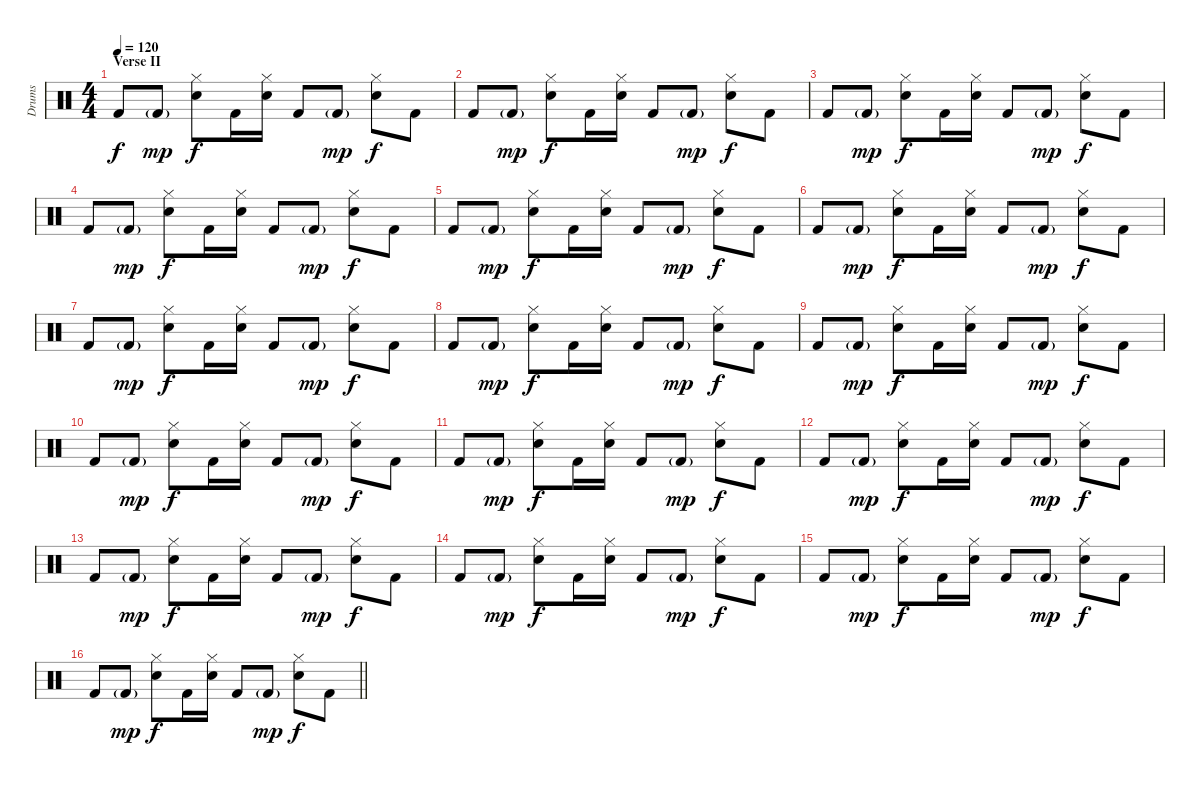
\track ("Drums" "Drums") {instrument percussion}
\staff {score}
\articulation defaults
\ts (4 4)
\section ("" "Verse II")
\tempo 120
\clef neutral
\ks c "Kick (hit) 2".8{dy f} "Kick (hit) 2"{g}.8{dy mp}
("Hi-Hat (closed)" "Snare (hit) 2").8{dy f} "Kick (hit) 2".16 ("Hi-Hat (closed)" "Snare (hit) 2").16 "Kick (hit) 2".8 "Kick (hit) 2"{g}.8{dy mp} ("Hi-Hat (closed)" "Snare (hit) 2").8{dy f} "Kick (hit) 2".8 |
"Kick (hit) 2".8 "Kick (hit) 2"{g}.8{dy mp} ("Hi-Hat (closed)" "Snare (hit) 2").8{dy f} "Kick (hit) 2".16 ("Hi-Hat (closed)" "Snare (hit) 2").16 "Kick (hit) 2".8 "Kick (hit) 2"{g}.8{dy mp} ("Hi-Hat (closed)" "Snare (hit) 2").8{dy f} "Kick (hit) 2".8 |
"Kick (hit) 2".8 "Kick (hit) 2"{g}.8{dy mp} ("Hi-Hat (closed)" "Snare (hit) 2").8{dy f} "Kick (hit) 2".16 ("Hi-Hat (closed)" "Snare (hit) 2").16 "Kick (hit) 2".8 "Kick (hit) 2"{g}.8{dy mp} ("Hi-Hat (closed)" "Snare (hit) 2").8{dy f} "Kick (hit) 2".8 |
"Kick (hit) 2".8 "Kick (hit) 2"{g}.8{dy mp} ("Hi-Hat (closed)" "Snare (hit) 2").8{dy f} "Kick (hit) 2".16 ("Hi-Hat (closed)" "Snare (hit) 2").16 "Kick (hit) 2".8 "Kick (hit) 2"{g}.8{dy mp} ("Hi-Hat (closed)" "Snare (hit) 2").8{dy f} "Kick (hit) 2".8 |
"Kick (hit) 2".8 "Kick (hit) 2"{g}.8{dy mp} ("Hi-Hat (closed)" "Snare (hit) 2").8{dy f} "Kick (hit) 2".16 ("Hi-Hat (closed)" "Snare (hit) 2").16 "Kick (hit) 2".8 "Kick (hit) 2"{g}.8{dy mp} ("Hi-Hat (closed)" "Snare (hit) 2").8{dy f} "Kick (hit) 2".8 |
"Kick (hit) 2".8 "Kick (hit) 2"{g}.8{dy mp} ("Hi-Hat (closed)" "Snare (hit) 2").8{dy f} "Kick (hit) 2".16 ("Hi-Hat (closed)" "Snare (hit) 2").16 "Kick (hit) 2".8 "Kick (hit) 2"{g}.8{dy mp} ("Hi-Hat (closed)" "Snare (hit) 2").8{dy f} "Kick (hit) 2".8 |
"Kick (hit) 2".8 "Kick (hit) 2"{g}.8{dy mp} ("Hi-Hat (closed)" "Snare (hit) 2").8{dy f} "Kick (hit) 2".16 ("Hi-Hat (closed)" "Snare (hit) 2").16 "Kick (hit) 2".8 "Kick (hit) 2"{g}.8{dy mp} ("Hi-Hat (closed)" "Snare (hit) 2").8{dy f} "Kick (hit) 2".8 |
"Kick (hit) 2".8 "Kick (hit) 2"{g}.8{dy mp} ("Hi-Hat (closed)" "Snare (hit) 2").8{dy f} "Kick (hit) 2".16 ("Hi-Hat (closed)" "Snare (hit) 2").16 "Kick (hit) 2".8 "Kick (hit) 2"{g}.8{dy mp} ("Hi-Hat (closed)" "Snare (hit) 2").8{dy f} "Kick (hit) 2".8 |
"Kick (hit) 2".8 "Kick (hit) 2"{g}.8{dy mp} ("Hi-Hat (closed)" "Snare (hit) 2").8{dy f} "Kick (hit) 2".16 ("Hi-Hat (closed)" "Snare (hit) 2").16 "Kick (hit) 2".8 "Kick (hit) 2"{g}.8{dy mp} ("Hi-Hat (closed)" "Snare (hit) 2").8{dy f} "Kick (hit) 2".8 |
"Kick (hit) 2".8 "Kick (hit) 2"{g}.8{dy mp} ("Hi-Hat (closed)" "Snare (hit) 2").8{dy f} "Kick (hit) 2".16 ("Hi-Hat (closed)" "Snare (hit) 2").16 "Kick (hit) 2".8 "Kick (hit) 2"{g}.8{dy mp} ("Hi-Hat (closed)" "Snare (hit) 2").8{dy f} "Kick (hit) 2".8 |
"Kick (hit) 2".8 "Kick (hit) 2"{g}.8{dy mp} ("Hi-Hat (closed)" "Snare (hit) 2").8{dy f} "Kick (hit) 2".16 ("Hi-Hat (closed)" "Snare (hit) 2").16 "Kick (hit) 2".8 "Kick (hit) 2"{g}.8{dy mp} ("Hi-Hat (closed)" "Snare (hit) 2").8{dy f} "Kick (hit) 2".8 |
"Kick (hit) 2".8 "Kick (hit) 2"{g}.8{dy mp} ("Hi-Hat (closed)" "Snare (hit) 2").8{dy f} "Kick (hit) 2".16 ("Hi-Hat (closed)" "Snare (hit) 2").16 "Kick (hit) 2".8 "Kick (hit) 2"{g}.8{dy mp} ("Hi-Hat (closed)" "Snare (hit) 2").8{dy f} "Kick (hit) 2".8 |
"Kick (hit) 2".8 "Kick (hit) 2"{g}.8{dy mp} ("Hi-Hat (closed)" "Snare (hit) 2").8{dy f} "Kick (hit) 2".16 ("Hi-Hat (closed)" "Snare (hit) 2").16 "Kick (hit) 2".8 "Kick (hit) 2"{g}.8{dy mp} ("Hi-Hat (closed)" "Snare (hit) 2").8{dy f} "Kick (hit) 2".8 |
"Kick (hit) 2".8 "Kick (hit) 2"{g}.8{dy mp} ("Hi-Hat (closed)" "Snare (hit) 2").8{dy f} "Kick (hit) 2".16 ("Hi-Hat (closed)" "Snare (hit) 2").16 "Kick (hit) 2".8 "Kick (hit) 2"{g}.8{dy mp} ("Hi-Hat (closed)" "Snare (hit) 2").8{dy f} "Kick (hit) 2".8 |
"Kick (hit) 2".8 "Kick (hit) 2"{g}.8{dy mp} ("Hi-Hat (closed)" "Snare (hit) 2").8{dy f} "Kick (hit) 2".16 ("Hi-Hat (closed)" "Snare (hit) 2").16 "Kick (hit) 2".8 "Kick (hit) 2"{g}.8{dy mp} ("Hi-Hat (closed)" "Snare (hit) 2").8{dy f} "Kick (hit) 2".8 |
\barLineRight lightlight "Kick (hit) 2".8 "Kick (hit) 2"{g}.8{dy mp}
("Hi-Hat (closed)" "Snare (hit) 2").8{dy f} "Kick (hit) 2".16 ("Hi-Hat (closed)" "Snare (hit) 2").16 "Kick (hit) 2".8 "Kick (hit) 2"{g}.8{dy mp} ("Hi-Hat (closed)" "Snare (hit) 2").8{dy f} "Kick (hit) 2".8
